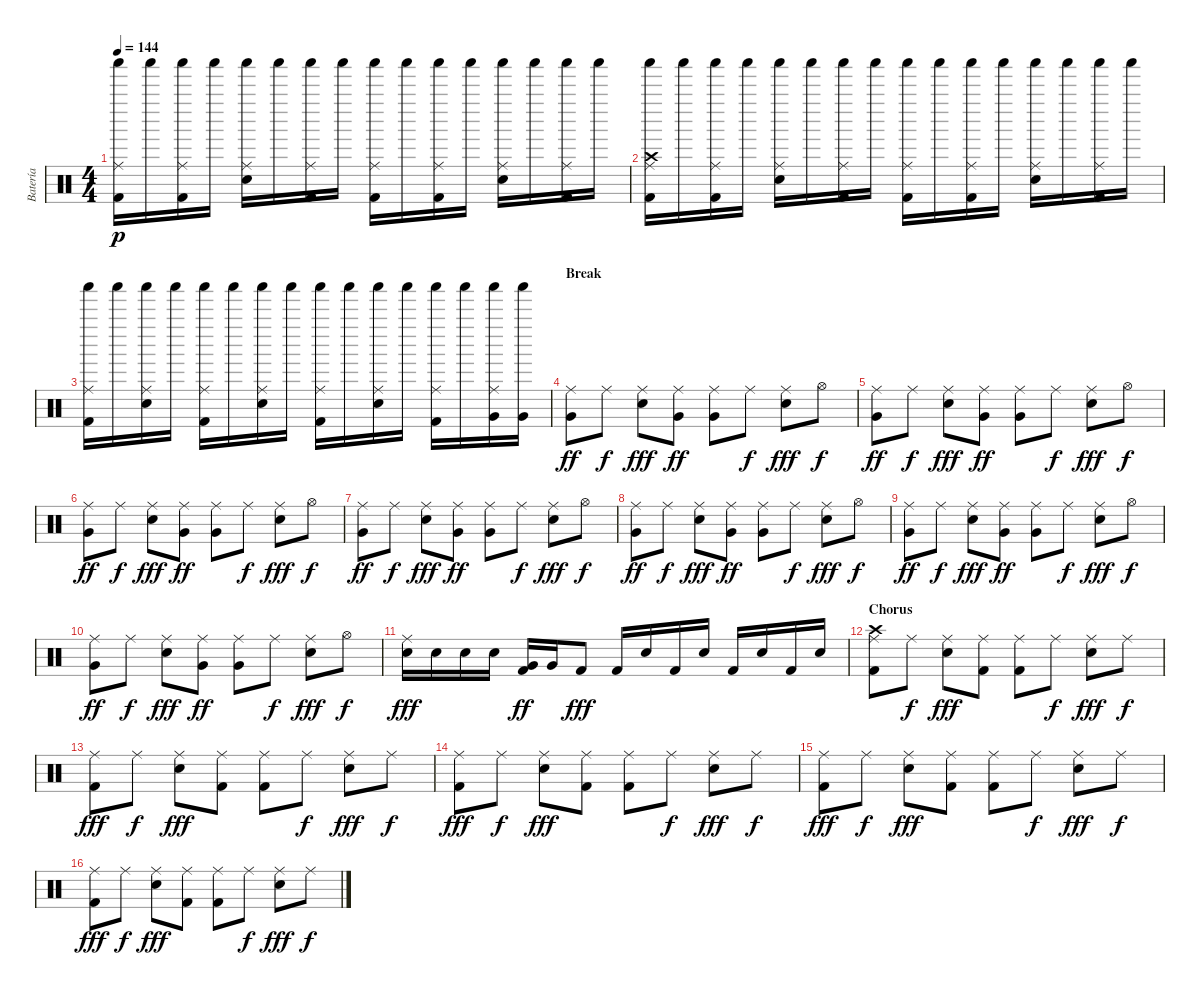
\track ("Batería" "Batería") {instrument percussion}
\staff {score}
\articulation defaults
\ts (4 4)
\tempo 144
\clef neutral
\ks c
("Ride (middle)" "Kick (hit) 2" "Shaker (hit)").16{dy p} "Shaker (hit)".16 ("Ride (middle)" "Kick (hit) 2" "Shaker (hit)").16 "Shaker (hit)".16 ("Ride (middle)" "Electric Snare (hit)" "Shaker (hit)").16 "Shaker (hit)".16 ("Ride (middle)" "Kick (hit) 2" "Shaker (hit)").16 "Shaker (hit)".16 ("Ride (middle)" "Kick (hit) 2" "Shaker (hit)").16 "Shaker (hit)".16 ("Ride (middle)" "Kick (hit) 2" "Shaker (hit)").16 "Shaker (hit)".16 ("Ride (middle)" "Electric Snare (hit)" "Shaker (hit)").16 "Shaker (hit)".16 ("Ride (middle)" "Kick (hit) 2" "Shaker (hit)").16 "Shaker (hit)".16 |
("Ride (middle)" "Kick (hit) 2" "Crash high (hit)" "Shaker (hit)").16 "Shaker (hit)".16 ("Ride (middle)" "Kick (hit) 2" "Shaker (hit)").16 "Shaker (hit)".16 ("Ride (middle)" "Electric Snare (hit)" "Shaker (hit)").16 "Shaker (hit)".16 ("Ride (middle)" "Kick (hit) 2" "Shaker (hit)").16 "Shaker (hit)".16 ("Ride (middle)" "Kick (hit) 2" "Shaker (hit)").16 "Shaker (hit)".16 ("Ride (middle)" "Kick (hit) 2" "Shaker (hit)").16 "Shaker (hit)".16 ("Ride (middle)" "Electric Snare (hit)" "Shaker (hit)").16 "Shaker (hit)".16 ("Ride (middle)" "Kick (hit) 2" "Shaker (hit)").16 "Shaker (hit)".16 |
("Ride (middle)" "Kick (hit) 2" "Shaker (hit)").16 "Shaker (hit)".16 ("Ride (middle)" "Electric Snare (hit)" "Shaker (hit)").16 "Shaker (hit)".16 ("Ride (middle)" "Kick (hit) 2" "Shaker (hit)").16 "Shaker (hit)".16 ("Ride (middle)" "Electric Snare (hit)" "Shaker (hit)").16 "Shaker (hit)".16 ("Ride (middle)" "Kick (hit) 2" "Shaker (hit)").16 "Shaker (hit)".16 ("Ride (middle)" "Electric Snare (hit)" "Shaker (hit)").16 "Shaker (hit)".16 ("Ride (middle)" "Kick (hit) 2" "Shaker (hit)").16 "Shaker (hit)".16 ("Ride (middle)" "Very Low Tom (hit)" "Shaker (hit)").16 ("Very Low Tom (hit)" "Shaker (hit)").16 |
\section ("" "Break")
("Ride (middle)" "Very Low Tom (hit)").8{dy ff} "Ride (middle)".8{dy f} ("Ride (middle)" "Electric Snare (hit)").8{dy fff} ("Ride (middle)" "Very Low Tom (hit)").8{dy ff} ("Ride (middle)" "Very Low Tom (hit)").8 "Ride (middle)".8{dy f} ("Ride (middle)" "Electric Snare (hit)").8{dy fff} "Hi-Hat (open)".8{dy f} |
("Ride (middle)" "Very Low Tom (hit)").8{dy ff} "Ride (middle)".8{dy f} ("Ride (middle)" "Electric Snare (hit)").8{dy fff} ("Ride (middle)" "Very Low Tom (hit)").8{dy ff} ("Ride (middle)" "Very Low Tom (hit)").8 "Ride (middle)".8{dy f} ("Ride (middle)" "Electric Snare (hit)").8{dy fff} "Hi-Hat (open)".8{dy f} |
("Ride (middle)" "Very Low Tom (hit)").8{dy ff} "Ride (middle)".8{dy f} ("Ride (middle)" "Electric Snare (hit)").8{dy fff} ("Ride (middle)" "Very Low Tom (hit)").8{dy ff} ("Ride (middle)" "Very Low Tom (hit)").8 "Ride (middle)".8{dy f} ("Ride (middle)" "Electric Snare (hit)").8{dy fff} "Hi-Hat (open)".8{dy f} |
("Ride (middle)" "Very Low Tom (hit)").8{dy ff} "Ride (middle)".8{dy f} ("Ride (middle)" "Electric Snare (hit)").8{dy fff} ("Ride (middle)" "Very Low Tom (hit)").8{dy ff} ("Ride (middle)" "Very Low Tom (hit)").8 "Ride (middle)".8{dy f} ("Ride (middle)" "Electric Snare (hit)").8{dy fff} "Hi-Hat (open)".8{dy f} |
("Ride (middle)" "Very Low Tom (hit)").8{dy ff} "Ride (middle)".8{dy f} ("Ride (middle)" "Electric Snare (hit)").8{dy fff} ("Ride (middle)" "Very Low Tom (hit)").8{dy ff} ("Ride (middle)" "Very Low Tom (hit)").8 "Ride (middle)".8{dy f} ("Ride (middle)" "Electric Snare (hit)").8{dy fff} "Hi-Hat (open)".8{dy f} |
("Ride (middle)" "Very Low Tom (hit)").8{dy ff} "Ride (middle)".8{dy f} ("Ride (middle)" "Electric Snare (hit)").8{dy fff} ("Ride (middle)" "Very Low Tom (hit)").8{dy ff} ("Ride (middle)" "Very Low Tom (hit)").8 "Ride (middle)".8{dy f} ("Ride (middle)" "Electric Snare (hit)").8{dy fff} "Hi-Hat (open)".8{dy f} |
("Ride (middle)" "Very Low Tom (hit)").8{dy ff} "Ride (middle)".8{dy f} ("Ride (middle)" "Electric Snare (hit)").8{dy fff} ("Ride (middle)" "Very Low Tom (hit)").8{dy ff} ("Ride (middle)" "Very Low Tom (hit)").8 "Ride (middle)".8{dy f} ("Ride (middle)" "Electric Snare (hit)").8{dy fff} "Hi-Hat (open)".8{dy f} |
("Ride (middle)" "Electric Snare (hit)").16{dy fff} "Electric Snare (hit)".16 "Electric Snare (hit)".16 "Electric Snare (hit)".16 ("Kick (hit) 2" "Very Low Tom (hit)").16{dy ff} "Very Low Tom (hit)".16 "Kick (hit) 2".8{dy fff} "Kick (hit) 2".16 "Electric Snare (hit)".16 "Kick (hit) 2".16 "Electric Snare (hit)".16 "Kick (hit) 2".16 "Electric Snare (hit)".16 "Kick (hit) 2".16 "Electric Snare (hit)".16 |
\section ("" "Chorus")
("Ride (middle)" "Kick (hit) 2" "Crash high (hit)").8 "Ride (middle)".8{dy f} ("Ride (middle)" "Electric Snare (hit)").8{dy fff} ("Ride (middle)" "Kick (hit) 2").8 ("Ride (middle)" "Kick (hit) 2").8 "Ride (middle)".8{dy f} ("Ride (middle)" "Electric Snare (hit)").8{dy fff} "Ride (middle)".8{dy f} |
("Ride (middle)" "Kick (hit) 2").8{dy fff} "Ride (middle)".8{dy f} ("Ride (middle)" "Electric Snare (hit)").8{dy fff} ("Ride (middle)" "Kick (hit) 2").8 ("Ride (middle)" "Kick (hit) 2").8 "Ride (middle)".8{dy f} ("Ride (middle)" "Electric Snare (hit)").8{dy fff} "Ride (middle)".8{dy f} |
("Ride (middle)" "Kick (hit) 2").8{dy fff} "Ride (middle)".8{dy f} ("Ride (middle)" "Electric Snare (hit)").8{dy fff} ("Ride (middle)" "Kick (hit) 2").8 ("Ride (middle)" "Kick (hit) 2").8 "Ride (middle)".8{dy f} ("Ride (middle)" "Electric Snare (hit)").8{dy fff} "Ride (middle)".8{dy f} |
("Ride (middle)" "Kick (hit) 2").8{dy fff} "Ride (middle)".8{dy f} ("Ride (middle)" "Electric Snare (hit)").8{dy fff} ("Ride (middle)" "Kick (hit) 2").8 ("Ride (middle)" "Kick (hit) 2").8 "Ride (middle)".8{dy f} ("Ride (middle)" "Electric Snare (hit)").8{dy fff} "Ride (middle)".8{dy f} |
("Ride (middle)" "Kick (hit) 2").8{dy fff} "Ride (middle)".8{dy f} ("Ride (middle)" "Electric Snare (hit)").8{dy fff} ("Ride (middle)" "Kick (hit) 2").8 ("Ride (middle)" "Kick (hit) 2").8 "Ride (middle)".8{dy f} ("Ride (middle)" "Electric Snare (hit)").8{dy fff} "Ride (middle)".8{dy f}
